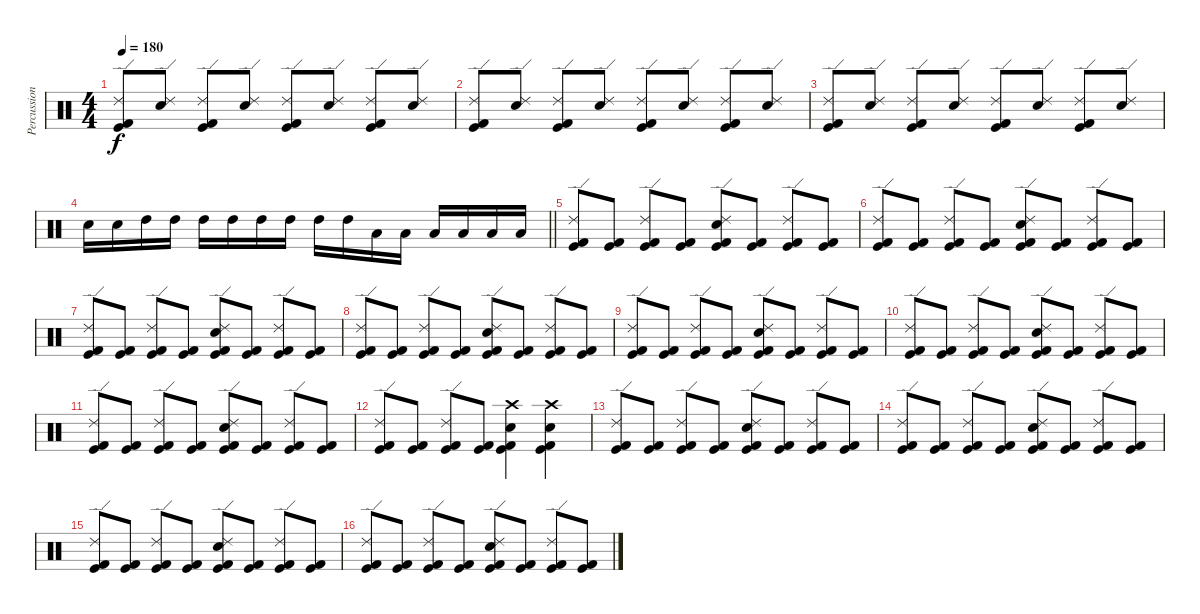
\track ("Percussion" "Percussion") {instrument percussion}
\staff {score}
\articulation defaults
\ts (4 4)
\tempo 180
\clef neutral
\ks c
("Ride (edge) 2" "Kick (hit)" "Kick (hit) 2").8{dy f} ("Ride (edge) 2" "Snare (hit) 2").8 ("Ride (edge) 2" "Kick (hit)" "Kick (hit) 2").8 ("Ride (edge) 2" "Snare (hit) 2").8 ("Ride (edge) 2" "Kick (hit)" "Kick (hit) 2").8 ("Ride (edge) 2" "Snare (hit) 2").8 ("Ride (edge) 2" "Kick (hit)" "Kick (hit) 2").8 ("Ride (edge) 2" "Snare (hit) 2").8 |
("Ride (edge) 2" "Kick (hit)" "Kick (hit) 2").8 ("Ride (edge) 2" "Snare (hit) 2").8 ("Ride (edge) 2" "Kick (hit)" "Kick (hit) 2").8 ("Ride (edge) 2" "Snare (hit) 2").8 ("Ride (edge) 2" "Kick (hit)" "Kick (hit) 2").8 ("Ride (edge) 2" "Snare (hit) 2").8 ("Ride (edge) 2" "Kick (hit)" "Kick (hit) 2").8 ("Ride (edge) 2" "Snare (hit) 2").8 |
("Ride (edge) 2" "Kick (hit)" "Kick (hit) 2").8 ("Ride (edge) 2" "Snare (hit) 2").8 ("Ride (edge) 2" "Kick (hit)" "Kick (hit) 2").8 ("Ride (edge) 2" "Snare (hit) 2").8 ("Ride (edge) 2" "Kick (hit)" "Kick (hit) 2").8 ("Ride (edge) 2" "Snare (hit) 2").8 ("Ride (edge) 2" "Kick (hit)" "Kick (hit) 2").8 ("Ride (edge) 2" "Snare (hit) 2").8 |
\barLineRight lightlight "Snare (hit) 2".16 "Snare (hit) 2".16 "High Tom (hit)".16 "High Tom (hit)".16 "High Tom (hit)".16 "High Tom (hit)".16 "High Tom (hit)".16 "High Tom (hit)".16 "High Tom (hit)".16 "High Tom (hit)".16 "Low Tom (hit)".16 "Low Tom (hit)".16 "Low Tom (hit)".16 "Low Tom (hit)".16 "Low Tom (hit)".16 "Low Tom (hit)".16
|
("Ride (edge) 2" "Kick (hit)" "Kick (hit) 2").8 ("Kick (hit)" "Kick (hit) 2").8 ("Ride (edge) 2" "Kick (hit)" "Kick (hit) 2").8 ("Kick (hit)" "Kick (hit) 2").8 ("Ride (edge) 2" "Snare (hit) 2" "Kick (hit)" "Kick (hit) 2").8 ("Kick (hit)" "Kick (hit) 2").8 ("Ride (edge) 2" "Kick (hit)" "Kick (hit) 2").8 ("Kick (hit)" "Kick (hit) 2").8 |
("Ride (edge) 2" "Kick (hit)" "Kick (hit) 2").8 ("Kick (hit)" "Kick (hit) 2").8 ("Ride (edge) 2" "Kick (hit)" "Kick (hit) 2").8 ("Kick (hit)" "Kick (hit) 2").8 ("Ride (edge) 2" "Snare (hit) 2" "Kick (hit)" "Kick (hit) 2").8 ("Kick (hit)" "Kick (hit) 2").8 ("Ride (edge) 2" "Kick (hit)" "Kick (hit) 2").8 ("Kick (hit)" "Kick (hit) 2").8 |
("Ride (edge) 2" "Kick (hit)" "Kick (hit) 2").8 ("Kick (hit)" "Kick (hit) 2").8 ("Ride (edge) 2" "Kick (hit)" "Kick (hit) 2").8 ("Kick (hit)" "Kick (hit) 2").8 ("Ride (edge) 2" "Snare (hit) 2" "Kick (hit)" "Kick (hit) 2").8 ("Kick (hit)" "Kick (hit) 2").8 ("Ride (edge) 2" "Kick (hit)" "Kick (hit) 2").8 ("Kick (hit)" "Kick (hit) 2").8 |
("Ride (edge) 2" "Kick (hit)" "Kick (hit) 2").8 ("Kick (hit)" "Kick (hit) 2").8 ("Ride (edge) 2" "Kick (hit)" "Kick (hit) 2").8 ("Kick (hit)" "Kick (hit) 2").8 ("Ride (edge) 2" "Snare (hit) 2" "Kick (hit)" "Kick (hit) 2").8 ("Kick (hit)" "Kick (hit) 2").8 ("Ride (edge) 2" "Kick (hit)" "Kick (hit) 2").8 ("Kick (hit)" "Kick (hit) 2").8 |
("Ride (edge) 2" "Kick (hit)" "Kick (hit) 2").8 ("Kick (hit)" "Kick (hit) 2").8 ("Ride (edge) 2" "Kick (hit)" "Kick (hit) 2").8 ("Kick (hit)" "Kick (hit) 2").8 ("Ride (edge) 2" "Snare (hit) 2" "Kick (hit)" "Kick (hit) 2").8 ("Kick (hit)" "Kick (hit) 2").8 ("Ride (edge) 2" "Kick (hit)" "Kick (hit) 2").8 ("Kick (hit)" "Kick (hit) 2").8 |
("Ride (edge) 2" "Kick (hit)" "Kick (hit) 2").8 ("Kick (hit)" "Kick (hit) 2").8 ("Ride (edge) 2" "Kick (hit)" "Kick (hit) 2").8 ("Kick (hit)" "Kick (hit) 2").8 ("Ride (edge) 2" "Snare (hit) 2" "Kick (hit)" "Kick (hit) 2").8 ("Kick (hit)" "Kick (hit) 2").8 ("Ride (edge) 2" "Kick (hit)" "Kick (hit) 2").8 ("Kick (hit)" "Kick (hit) 2").8 |
("Ride (edge) 2" "Kick (hit)" "Kick (hit) 2").8 ("Kick (hit)" "Kick (hit) 2").8 ("Ride (edge) 2" "Kick (hit)" "Kick (hit) 2").8 ("Kick (hit)" "Kick (hit) 2").8 ("Ride (edge) 2" "Snare (hit) 2" "Kick (hit)" "Kick (hit) 2").8 ("Kick (hit)" "Kick (hit) 2").8 ("Ride (edge) 2" "Kick (hit)" "Kick (hit) 2").8 ("Kick (hit)" "Kick (hit) 2").8 |
("Ride (edge) 2" "Kick (hit)" "Kick (hit) 2").8 ("Kick (hit)" "Kick (hit) 2").8 ("Ride (edge) 2" "Kick (hit)" "Kick (hit) 2").8 ("Kick (hit)" "Kick (hit) 2").8 ("Crash high (hit)" "Snare (hit) 2" "Kick (hit)" "Kick (hit) 2").4 ("Crash high (hit)" "Snare (hit) 2" "Kick (hit)" "Kick (hit) 2").4 |
("Ride (edge) 2" "Kick (hit)" "Kick (hit) 2").8 ("Kick (hit)" "Kick (hit) 2").8 ("Ride (edge) 2" "Kick (hit)" "Kick (hit) 2").8 ("Kick (hit)" "Kick (hit) 2").8 ("Ride (edge) 2" "Snare (hit) 2" "Kick (hit)" "Kick (hit) 2").8 ("Kick (hit)" "Kick (hit) 2").8 ("Ride (edge) 2" "Kick (hit)" "Kick (hit) 2").8 ("Kick (hit)" "Kick (hit) 2").8 |
("Ride (edge) 2" "Kick (hit)" "Kick (hit) 2").8 ("Kick (hit)" "Kick (hit) 2").8 ("Ride (edge) 2" "Kick (hit)" "Kick (hit) 2").8 ("Kick (hit)" "Kick (hit) 2").8 ("Ride (edge) 2" "Snare (hit) 2" "Kick (hit)" "Kick (hit) 2").8 ("Kick (hit)" "Kick (hit) 2").8 ("Ride (edge) 2" "Kick (hit)" "Kick (hit) 2").8 ("Kick (hit)" "Kick (hit) 2").8 |
("Ride (edge) 2" "Kick (hit)" "Kick (hit) 2").8 ("Kick (hit)" "Kick (hit) 2").8 ("Ride (edge) 2" "Kick (hit)" "Kick (hit) 2").8 ("Kick (hit)" "Kick (hit) 2").8 ("Ride (edge) 2" "Snare (hit) 2" "Kick (hit)" "Kick (hit) 2").8 ("Kick (hit)" "Kick (hit) 2").8 ("Ride (edge) 2" "Kick (hit)" "Kick (hit) 2").8 ("Kick (hit)" "Kick (hit) 2").8 |
("Ride (edge) 2" "Kick (hit)" "Kick (hit) 2").8 ("Kick (hit)" "Kick (hit) 2").8 ("Ride (edge) 2" "Kick (hit)" "Kick (hit) 2").8 ("Kick (hit)" "Kick (hit) 2").8 ("Ride (edge) 2" "Snare (hit) 2" "Kick (hit)" "Kick (hit) 2").8 ("Kick (hit)" "Kick (hit) 2").8 ("Ride (edge) 2" "Kick (hit)" "Kick (hit) 2").8 ("Kick (hit)" "Kick (hit) 2").8
